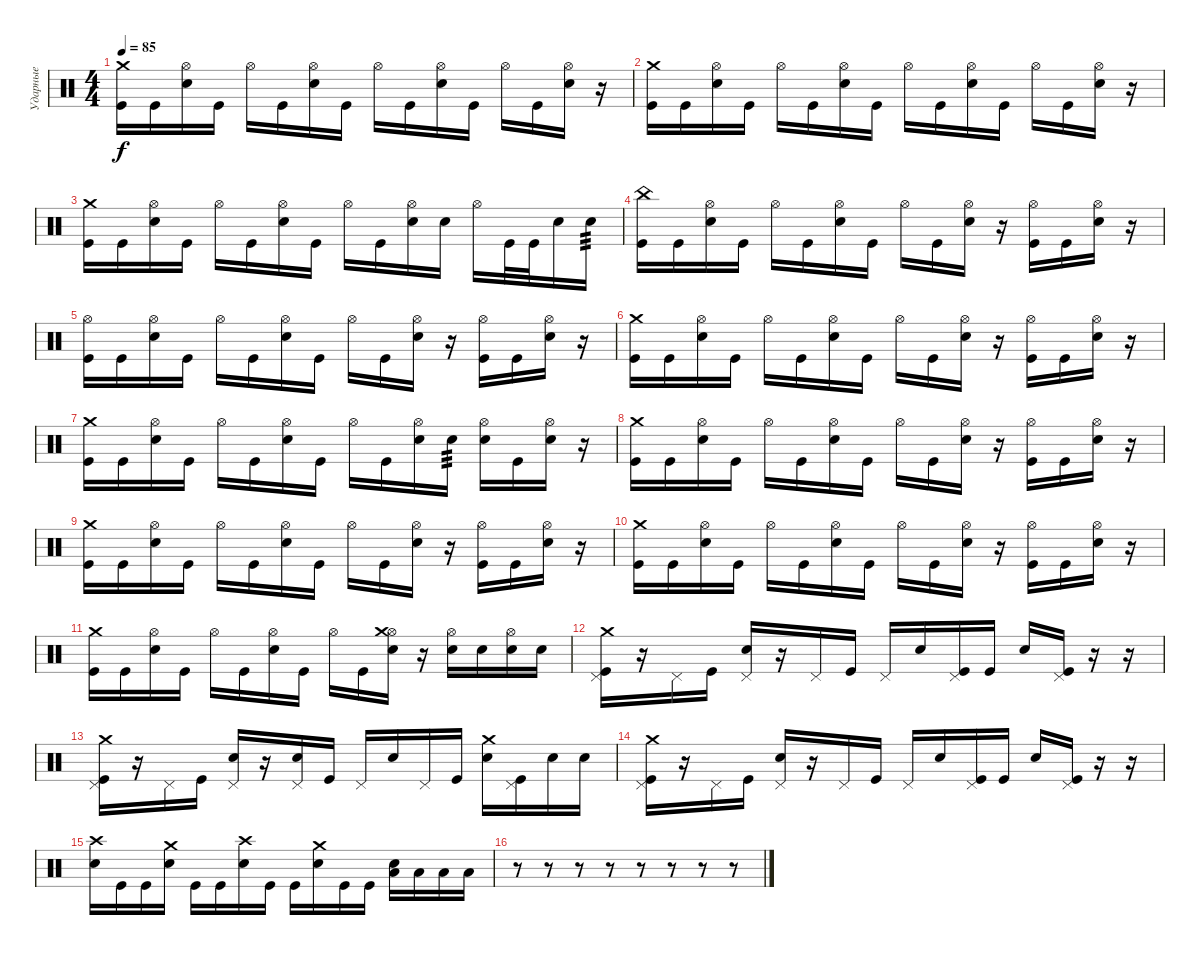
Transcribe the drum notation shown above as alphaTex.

\track ("Ударные" "Ударные") {instrument percussion}
\staff {score}
\articulation defaults
\ts (4 4)
\tempo 85
\clef neutral
\ks c
("Crash medium (hit)" "Kick (hit)").16{dy f} "Kick (hit)".16 ("Hi-Hat (open)" "Electric Snare (hit)").16 "Kick (hit)".16 "Hi-Hat (open)".16 "Kick (hit)".16 ("Hi-Hat (open)" "Electric Snare (hit)").16 "Kick (hit)".16 "Hi-Hat (open)".16 "Kick (hit)".16 ("Hi-Hat (open)" "Electric Snare (hit)").16 "Kick (hit)".16 "Hi-Hat (open)".16 "Kick (hit)".16 ("Hi-Hat (open)" "Electric Snare (hit)").16 r.16 |
("Crash medium (hit)" "Kick (hit)").16 "Kick (hit)".16 ("Hi-Hat (open)" "Electric Snare (hit)").16 "Kick (hit)".16 "Hi-Hat (open)".16 "Kick (hit)".16 ("Hi-Hat (open)" "Electric Snare (hit)").16 "Kick (hit)".16 "Hi-Hat (open)".16 "Kick (hit)".16 ("Hi-Hat (open)" "Electric Snare (hit)").16 "Kick (hit)".16 "Hi-Hat (open)".16 "Kick (hit)".16 ("Hi-Hat (open)" "Electric Snare (hit)").16 r.16 |
("Crash medium (hit)" "Kick (hit)").16 "Kick (hit)".16 ("Hi-Hat (open)" "Electric Snare (hit)").16 "Kick (hit)".16 "Hi-Hat (open)".16 "Kick (hit)".16 ("Hi-Hat (open)" "Electric Snare (hit)").16 "Kick (hit)".16 "Hi-Hat (open)".16 "Kick (hit)".16 ("Hi-Hat (open)" "Electric Snare (hit)").16 "Electric Snare (hit)".16 "Hi-Hat (open)".16 "Kick (hit)".32 "Kick (hit)".32 "Electric Snare (hit)".16 "Electric Snare (hit)".16{tp 3} |
("China (hit)" "Kick (hit)").16 "Kick (hit)".16 ("Hi-Hat (open)" "Electric Snare (hit)").16 "Kick (hit)".16 "Hi-Hat (open)".16 "Kick (hit)".16 ("Hi-Hat (open)" "Electric Snare (hit)").16 "Kick (hit)".16 "Hi-Hat (open)".16 "Kick (hit)".16 ("Hi-Hat (open)" "Electric Snare (hit)").16 r.16 ("Hi-Hat (open)" "Kick (hit)").16 "Kick (hit)".16 ("Hi-Hat (open)" "Electric Snare (hit)").16 r.16 |
("Hi-Hat (open)" "Kick (hit)").16 "Kick (hit)".16 ("Hi-Hat (open)" "Electric Snare (hit)").16 "Kick (hit)".16 "Hi-Hat (open)".16 "Kick (hit)".16 ("Hi-Hat (open)" "Electric Snare (hit)").16 "Kick (hit)".16 "Hi-Hat (open)".16 "Kick (hit)".16 ("Hi-Hat (open)" "Electric Snare (hit)").16 r.16 ("Hi-Hat (open)" "Kick (hit)").16 "Kick (hit)".16 ("Hi-Hat (open)" "Electric Snare (hit)").16 r.16 |
("Crash medium (hit)" "Kick (hit)").16 "Kick (hit)".16 ("Hi-Hat (open)" "Electric Snare (hit)").16 "Kick (hit)".16 "Hi-Hat (open)".16 "Kick (hit)".16 ("Hi-Hat (open)" "Electric Snare (hit)").16 "Kick (hit)".16 "Hi-Hat (open)".16 "Kick (hit)".16 ("Hi-Hat (open)" "Electric Snare (hit)").16 r.16 ("Hi-Hat (open)" "Kick (hit)").16 "Kick (hit)".16 ("Hi-Hat (open)" "Electric Snare (hit)").16 r.16 |
("Crash medium (hit)" "Kick (hit)").16 "Kick (hit)".16 ("Hi-Hat (open)" "Electric Snare (hit)").16 "Kick (hit)".16 "Hi-Hat (open)".16 "Kick (hit)".16 ("Hi-Hat (open)" "Electric Snare (hit)").16 "Kick (hit)".16 "Hi-Hat (open)".16 "Kick (hit)".16 ("Hi-Hat (open)" "Electric Snare (hit)").16 "Electric Snare (hit)".16{tp 3} ("Hi-Hat (open)" "Electric Snare (hit)").16 "Kick (hit)".16 ("Hi-Hat (open)" "Electric Snare (hit)").16 r.16 |
("Crash medium (hit)" "Kick (hit)").16 "Kick (hit)".16 ("Hi-Hat (open)" "Electric Snare (hit)").16 "Kick (hit)".16 "Hi-Hat (open)".16 "Kick (hit)".16 ("Hi-Hat (open)" "Electric Snare (hit)").16 "Kick (hit)".16 "Hi-Hat (open)".16 "Kick (hit)".16 ("Hi-Hat (open)" "Electric Snare (hit)").16 r.16 ("Hi-Hat (open)" "Kick (hit)").16 "Kick (hit)".16 ("Hi-Hat (open)" "Electric Snare (hit)").16 r.16 |
("Crash medium (hit)" "Kick (hit)").16 "Kick (hit)".16 ("Hi-Hat (open)" "Electric Snare (hit)").16 "Kick (hit)".16 "Hi-Hat (open)".16 "Kick (hit)".16 ("Hi-Hat (open)" "Electric Snare (hit)").16 "Kick (hit)".16 "Hi-Hat (open)".16 "Kick (hit)".16 ("Hi-Hat (open)" "Electric Snare (hit)").16 r.16 ("Hi-Hat (open)" "Kick (hit)").16 "Kick (hit)".16 ("Hi-Hat (open)" "Electric Snare (hit)").16 r.16 |
("Crash medium (hit)" "Kick (hit)").16 "Kick (hit)".16 ("Hi-Hat (open)" "Electric Snare (hit)").16 "Kick (hit)".16 "Hi-Hat (open)".16 "Kick (hit)".16 ("Hi-Hat (open)" "Electric Snare (hit)").16 "Kick (hit)".16 "Hi-Hat (open)".16 "Kick (hit)".16 ("Hi-Hat (open)" "Electric Snare (hit)").16 r.16 ("Hi-Hat (open)" "Kick (hit)").16 "Kick (hit)".16 ("Hi-Hat (open)" "Electric Snare (hit)").16 r.16 |
("Crash medium (hit)" "Kick (hit)").16 "Kick (hit)".16 ("Hi-Hat (open)" "Electric Snare (hit)").16 "Kick (hit)".16 "Hi-Hat (open)".16 "Kick (hit)".16 ("Hi-Hat (open)" "Electric Snare (hit)").16 "Kick (hit)".16 "Hi-Hat (open)".16 "Kick (hit)".16 ("Hi-Hat (open)" "Electric Snare (hit)" "Crash medium (hit)").16 r.16 ("Hi-Hat (open)" "Electric Snare (hit)").16 "Electric Snare (hit)".16 ("Hi-Hat (open)" "Electric Snare (hit)").16 "Electric Snare (hit)".16 |
("Pedal Hi-Hat (hit)" "Kick (hit)" "Crash medium (hit)").16 r.16 "Pedal Hi-Hat (hit)".16 "Kick (hit)".16 ("Pedal Hi-Hat (hit)" "Electric Snare (hit)").16 r.16 "Pedal Hi-Hat (hit)".16 "Kick (hit)".16 "Pedal Hi-Hat (hit)".16 "Electric Snare (hit)".16 ("Pedal Hi-Hat (hit)" "Kick (hit)").16 "Kick (hit)".16 "Electric Snare (hit)".16 ("Pedal Hi-Hat (hit)" "Kick (hit)").16 r.16 r.16 |
("Pedal Hi-Hat (hit)" "Kick (hit)" "Crash medium (hit)").16 r.16 "Pedal Hi-Hat (hit)".16 "Kick (hit)".16 ("Pedal Hi-Hat (hit)" "Electric Snare (hit)").16 r.16 ("Pedal Hi-Hat (hit)" "Electric Snare (hit)").16 "Kick (hit)".16 "Pedal Hi-Hat (hit)".16 "Electric Snare (hit)".16 "Pedal Hi-Hat (hit)".16 "Kick (hit)".16 ("Electric Snare (hit)" "Crash medium (hit)").16 ("Pedal Hi-Hat (hit)" "Kick (hit)").16 "Electric Snare (hit)".16 "Electric Snare (hit)".16 |
("Pedal Hi-Hat (hit)" "Kick (hit)" "Crash medium (hit)").16 r.16 "Pedal Hi-Hat (hit)".16 "Kick (hit)".16 ("Pedal Hi-Hat (hit)" "Electric Snare (hit)").16 r.16 "Pedal Hi-Hat (hit)".16 "Kick (hit)".16 "Pedal Hi-Hat (hit)".16 "Electric Snare (hit)".16 ("Pedal Hi-Hat (hit)" "Kick (hit)").16 "Kick (hit)".16 "Electric Snare (hit)".16 ("Pedal Hi-Hat (hit)" "Kick (hit)").16 r.16 r.16 |
("Crash high (hit)" "Electric Snare (hit)").16 "Kick (hit)".16 "Kick (hit)".16 ("Crash medium (hit)" "Electric Snare (hit)").16 "Kick (hit)".16 "Kick (hit)".16 ("Crash high (hit)" "Electric Snare (hit)").16 "Kick (hit)".16 "Kick (hit)".16 ("Crash medium (hit)" "Electric Snare (hit)").16 "Kick (hit)".16 "Kick (hit)".16 ("Low Tom (hit)" "Electric Snare (hit)").16 "Low Tom (hit)".16 "Low Tom (hit)".16 "Low Tom (hit)".16 |
r.8 r.8 r.8 r.8 r.8 r.8 r.8 r.8
